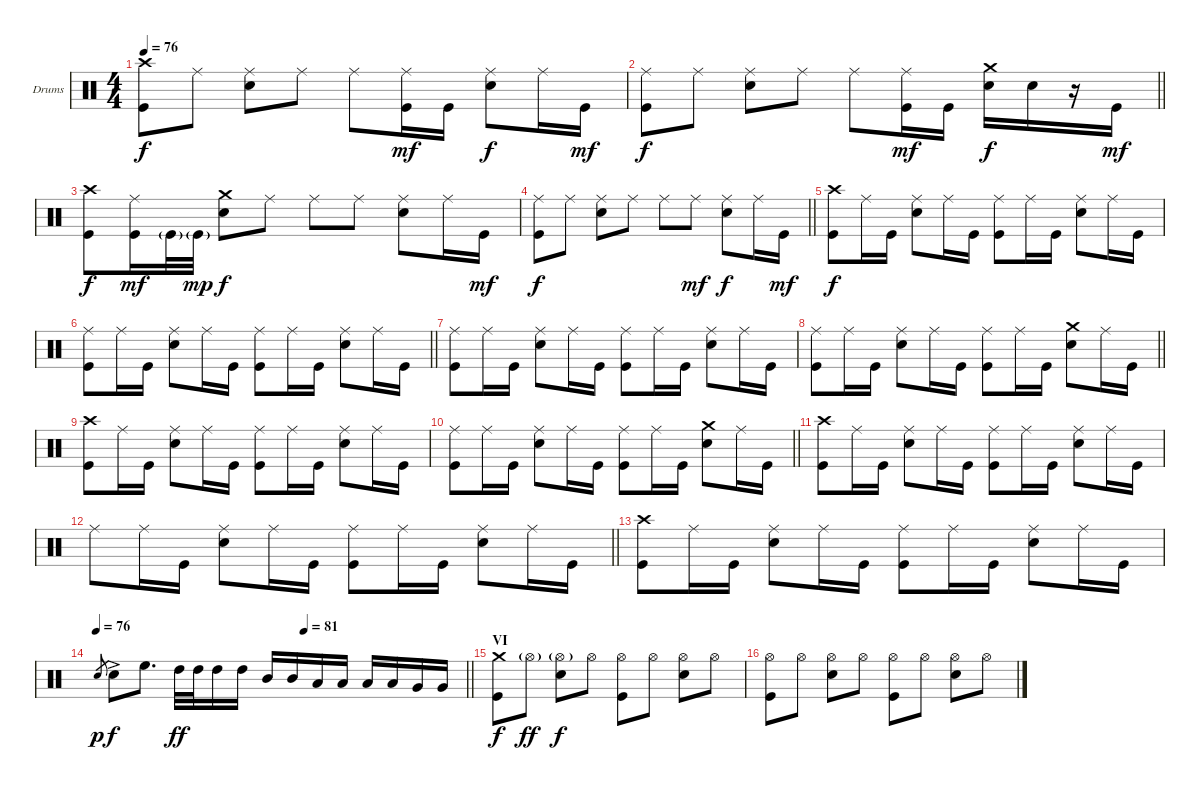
\bracketExtendMode groupsimilarinstruments
\firstSystemTrackNameOrientation horizontal
\otherSystemsTrackNameOrientation horizontal
\track ("Drumkit" "Drums") {instrument percussion}
\staff {score}
\articulation defaults
\ts (4 4)
\tempo 76
\clef neutral
\ks c
("Crash high (hit)" "Kick (hit)").8{dy f} "Ride (middle)".8 ("Ride (middle)" "Snare (hit) 2").8 "Ride (middle)".8 "Ride (middle)".8 ("Ride (middle)" "Kick (hit)").16{dy mf} "Kick (hit)".16 ("Ride (middle)" "Snare (hit) 2").8{dy f} "Ride (middle)".16 "Kick (hit)".16{dy mf} |
\barLineRight lightlight
("Ride (middle)" "Kick (hit)").8{dy f} "Ride (middle)".8 ("Ride (middle)" "Snare (hit) 2").8 "Ride (middle)".8 "Ride (middle)".8 ("Ride (middle)" "Kick (hit)").16{dy mf} "Kick (hit)".16 ("Crash medium (hit)" "Snare (hit) 2").16{dy f} "Snare (hit) 2".16 r.16 "Kick (hit)".16{dy mf} |
("Crash high (hit)" "Kick (hit)").8{dy f} ("Ride (middle)" "Kick (hit)").16{dy mf} "Kick (hit)"{g}.32 "Kick (hit)"{g}.32{dy mp} ("Crash medium (hit)" "Snare (hit) 2").8{dy f} "Ride (middle)".8 "Ride (middle)".8 "Ride (middle)".8 ("Ride (middle)" "Snare (hit) 2").8 "Ride (middle)".16 "Kick (hit)".16{dy mf} |
\barLineRight lightlight
("Ride (middle)" "Kick (hit)").8{dy f} "Ride (middle)".8 ("Ride (middle)" "Snare (hit) 2").8 "Ride (middle)".8 "Ride (middle)".8 "Ride (middle)".8{dy mf} ("Ride (middle)" "Snare (hit) 2").8{dy f} "Ride (middle)".16 "Kick (hit)".16{dy mf} |
("Crash high (hit)" "Kick (hit)").8{dy f} "Ride (middle)".16 "Kick (hit)".16 ("Ride (middle)" "Snare (hit) 2").8 "Ride (middle)".16 "Kick (hit)".16 ("Ride (middle)" "Kick (hit)").8 "Ride (middle)".16 "Kick (hit)".16 ("Ride (middle)" "Snare (hit) 2").8 "Ride (middle)".16 "Kick (hit)".16 |
\barLineRight lightlight
("Ride (middle)" "Kick (hit)").8 "Ride (middle)".16 "Kick (hit)".16 ("Ride (middle)" "Snare (hit) 2").8 "Ride (middle)".16 "Kick (hit)".16 ("Ride (middle)" "Kick (hit)").8 "Ride (middle)".16 "Kick (hit)".16 ("Ride (middle)" "Snare (hit) 2").8 "Ride (middle)".16 "Kick (hit)".16 |
("Ride (middle)" "Kick (hit)").8 "Ride (middle)".16 "Kick (hit)".16 ("Ride (middle)" "Snare (hit) 2").8 "Ride (middle)".16 "Kick (hit)".16 ("Ride (middle)" "Kick (hit)").8 "Ride (middle)".16 "Kick (hit)".16 ("Ride (middle)" "Snare (hit) 2").8 "Ride (middle)".16 "Kick (hit)".16 |
\barLineRight lightlight
("Ride (middle)" "Kick (hit)").8 "Ride (middle)".16 "Kick (hit)".16 ("Ride (middle)" "Snare (hit) 2").8 "Ride (middle)".16 "Kick (hit)".16 ("Ride (middle)" "Kick (hit)").8 "Ride (middle)".16 "Kick (hit)".16 ("Crash medium (hit)" "Snare (hit) 2").8 "Ride (middle)".16 "Kick (hit)".16 |
("Crash high (hit)" "Kick (hit)").8 "Ride (middle)".16 "Kick (hit)".16 ("Ride (middle)" "Snare (hit) 2").8 "Ride (middle)".16 "Kick (hit)".16 ("Ride (middle)" "Kick (hit)").8 "Ride (middle)".16 "Kick (hit)".16 ("Ride (middle)" "Snare (hit) 2").8 "Ride (middle)".16 "Kick (hit)".16 |
\barLineRight lightlight
("Ride (middle)" "Kick (hit)").8 "Ride (middle)".16 "Kick (hit)".16 ("Ride (middle)" "Snare (hit) 2").8 "Ride (middle)".16 "Kick (hit)".16 ("Ride (middle)" "Kick (hit)").8 "Ride (middle)".16 "Kick (hit)".16 ("Crash medium (hit)" "Snare (hit) 2").8 "Ride (middle)".16 "Kick (hit)".16 |
("Crash high (hit)" "Kick (hit)").8 "Ride (middle)".16 "Kick (hit)".16 ("Ride (middle)" "Snare (hit) 2").8 "Ride (middle)".16 "Kick (hit)".16 ("Ride (middle)" "Kick (hit)").8 "Ride (middle)".16 "Kick (hit)".16 ("Ride (middle)" "Snare (hit) 2").8 "Ride (middle)".16 "Kick (hit)".16 |
\barLineRight lightlight "Ride (middle)".8 "Ride (middle)".16 "Kick (hit)".16
("Ride (middle)" "Snare (hit) 2").8 "Ride (middle)".16 "Kick (hit)".16 ("Ride (middle)" "Kick (hit)").8 "Ride (middle)".16 "Kick (hit)".16 ("Ride (middle)" "Snare (hit) 2").8 "Ride (middle)".16 "Kick (hit)".16 |
("Crash high (hit)" "Kick (hit)").8 "Ride (middle)".16 "Kick (hit)".16 ("Ride (middle)" "Snare (hit) 2").8 "Ride (middle)".16 "Kick (hit)".16 ("Ride (middle)" "Kick (hit)").8 "Ride (middle)".16 "Kick (hit)".16 ("Ride (middle)" "Snare (hit) 2").8 "Ride (middle)".16 "Kick (hit)".16 |
\tempo 76
\tempo (81 0.5625)
\barLineRight lightlight "Snare (hit) 2".8{gr dy p} "Snare (hit) 2"{ac}.8{dy f} "High Floor Tom (hit)".8{d} "High Tom (hit)".32{dy ff} "High Tom (hit)".32 "High Tom (hit)".16 "High Tom (hit)".16 "Mid Tom (hit)".16 "Mid Tom (hit)".16 "Low Tom (hit)".16 "Low Tom (hit)".16 "Low Tom (hit)".16 "Low Tom (hit)".16 "Very Low Tom (hit)".16 "Very Low Tom (hit)".16
|
\section ("" "VI")
("Crash medium (hit)" "Kick (hit)").8{dy f} "Hi-Hat (open)"{g}.8{dy ff} ("Hi-Hat (open)"{g} "Snare (hit) 2").8{dy f} "Hi-Hat (open)".8 ("Hi-Hat (open)" "Kick (hit)").8 "Hi-Hat (open)".8 ("Hi-Hat (open)" "Snare (hit) 2").8 "Hi-Hat (open)".8 |
("Hi-Hat (open)" "Kick (hit)").8 "Hi-Hat (open)".8 ("Hi-Hat (open)" "Snare (hit) 2").8 "Hi-Hat (open)".8 ("Hi-Hat (open)" "Kick (hit)").8 "Hi-Hat (open)".8 ("Hi-Hat (open)" "Snare (hit) 2").8 "Hi-Hat (open)".8
